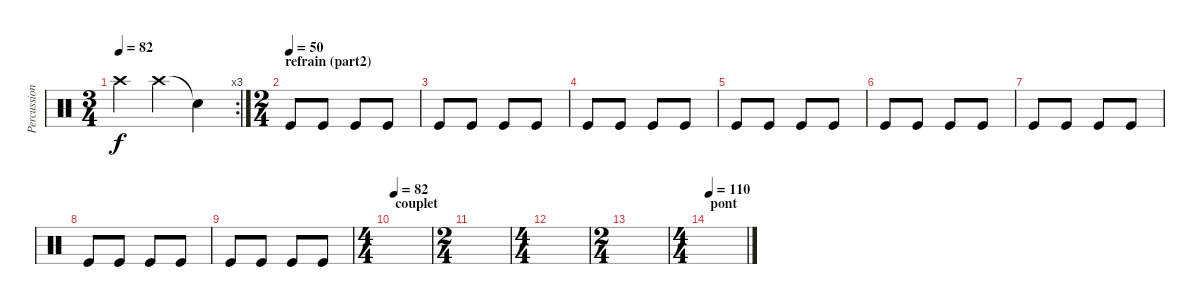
\track ("Percussions" "Percussion") {instrument percussion}
\staff {score}
\articulation defaults
\rc 3
\ts (3 4)
\tempo 82
\clef neutral
\ks c "Crash high (hit)".4{dy f} "Crash high (hit)".4 "Snare (hit)"{t}.4
|
\ts (2 4)
\section ("" "refrain (part2)")
\tempo (50)
"Kick (hit)".8 "Kick (hit)".8 "Kick (hit)".8 "Kick (hit)".8 |
"Kick (hit)".8 "Kick (hit)".8 "Kick (hit)".8 "Kick (hit)".8 |
"Kick (hit)".8 "Kick (hit)".8 "Kick (hit)".8 "Kick (hit)".8 |
"Kick (hit)".8 "Kick (hit)".8 "Kick (hit)".8 "Kick (hit)".8 |
"Kick (hit)".8 "Kick (hit)".8 "Kick (hit)".8 "Kick (hit)".8 |
"Kick (hit)".8 "Kick (hit)".8 "Kick (hit)".8 "Kick (hit)".8 |
"Kick (hit)".8 "Kick (hit)".8 "Kick (hit)".8 "Kick (hit)".8 |
"Kick (hit)".8 "Kick (hit)".8 "Kick (hit)".8 "Kick (hit)".8 |
\ts (4 4)
\section ("" "couplet")
\tempo 82
|
\ts (2 4)
|
\ts (4 4)
|
\ts (2 4)
|
\ts (4 4)
\section ("" "pont")
\tempo 110
